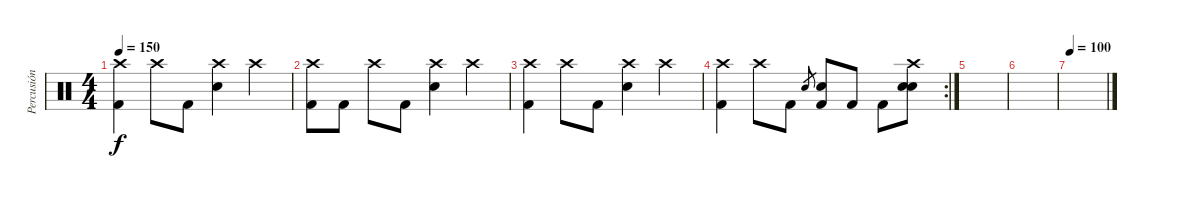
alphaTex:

\track ("Percusión" "Percusión") {instrument percussion}
\staff {score}
\articulation defaults
\ts (4 4)
\tempo 150
\clef neutral
\ks c
("Crash high (hit)" "Kick (hit) 2").4{dy f} "Crash high (hit)".8 "Kick (hit) 2".8 ("Crash high (hit)" "Electric Snare (hit)").4 "Crash high (hit)".4 |
("Crash high (hit)" "Kick (hit) 2").8 "Kick (hit) 2".8 "Crash high (hit)".8 "Kick (hit) 2".8 ("Crash high (hit)" "Electric Snare (hit)").4 "Crash high (hit)".4 |
("Crash high (hit)" "Kick (hit) 2").4 "Crash high (hit)".8 "Kick (hit) 2".8 ("Crash high (hit)" "Electric Snare (hit)").4 "Crash high (hit)".4 |
\rc 2
("Crash high (hit)" "Kick (hit) 2").4 "Crash high (hit)".8 "Kick (hit) 2".8 "Electric Snare (hit)".8{gr} ("Electric Snare (hit)" "Kick (hit) 2").8 "Kick (hit) 2".8 "Kick (hit) 2".8 ("Crash high (hit)" "Electric Snare (hit)" "Electric Snare (hit)").8 |
|
|
\tempo 100
